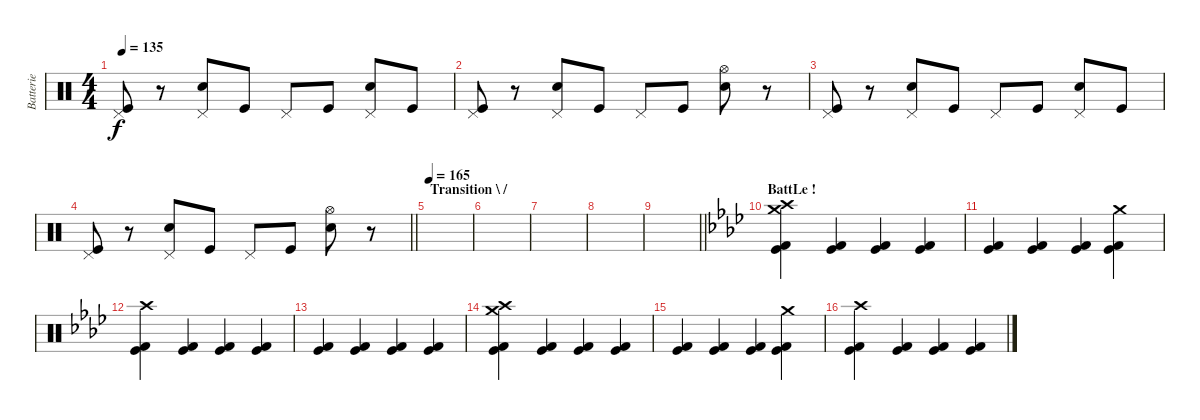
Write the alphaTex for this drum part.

\track ("Batterie" "Batterie") {instrument percussion}
\staff {score}
\articulation defaults
\ts (4 4)
\tempo 135
\clef neutral
\ks c
("Kick (hit)" "Pedal Hi-Hat (hit)").8{dy f} r.8 ("Electric Snare (hit)" "Pedal Hi-Hat (hit)").8 "Kick (hit)".8 "Pedal Hi-Hat (hit)".8 "Kick (hit)".8 ("Electric Snare (hit)" "Pedal Hi-Hat (hit)").8 "Kick (hit)".8 |
("Kick (hit)" "Pedal Hi-Hat (hit)").8 r.8 ("Electric Snare (hit)" "Pedal Hi-Hat (hit)").8 "Kick (hit)".8 "Pedal Hi-Hat (hit)".8 "Kick (hit)".8 ("Electric Snare (hit)" "Hi-Hat (open)").8 r.8 |
("Kick (hit)" "Pedal Hi-Hat (hit)").8 r.8 ("Electric Snare (hit)" "Pedal Hi-Hat (hit)").8 "Kick (hit)".8 "Pedal Hi-Hat (hit)".8 "Kick (hit)".8 ("Electric Snare (hit)" "Pedal Hi-Hat (hit)").8 "Kick (hit)".8 |
\barLineRight lightlight
("Kick (hit)" "Pedal Hi-Hat (hit)").8 r.8 ("Electric Snare (hit)" "Pedal Hi-Hat (hit)").8 "Kick (hit)".8 "Pedal Hi-Hat (hit)".8 "Kick (hit)".8 ("Electric Snare (hit)" "Hi-Hat (open)").8 r.8 |
\section ("" "Transition \\ /")
\tempo 165
|
|
|
|
\barLineRight lightlight
|
\section ("" "BattLe !")
\ks ab
("Kick (hit)" "Kick (hit) 2" "Crash high (hit)" "Crash medium (hit)").4 ("Kick (hit)" "Kick (hit) 2").4 ("Kick (hit)" "Kick (hit) 2").4 ("Kick (hit)" "Kick (hit) 2").4 |
("Kick (hit)" "Kick (hit) 2").4 ("Kick (hit)" "Kick (hit) 2").4 ("Kick (hit)" "Kick (hit) 2").4 ("Kick (hit)" "Kick (hit) 2" "Crash medium (hit)").4 |
("Kick (hit)" "Kick (hit) 2" "Crash high (hit)").4 ("Kick (hit)" "Kick (hit) 2").4 ("Kick (hit)" "Kick (hit) 2").4 ("Kick (hit)" "Kick (hit) 2").4 |
("Kick (hit)" "Kick (hit) 2").4 ("Kick (hit)" "Kick (hit) 2").4 ("Kick (hit)" "Kick (hit) 2").4 ("Kick (hit)" "Kick (hit) 2").4 |
("Kick (hit)" "Kick (hit) 2" "Crash high (hit)" "Crash medium (hit)").4 ("Kick (hit)" "Kick (hit) 2").4 ("Kick (hit)" "Kick (hit) 2").4 ("Kick (hit)" "Kick (hit) 2").4 |
("Kick (hit)" "Kick (hit) 2").4 ("Kick (hit)" "Kick (hit) 2").4 ("Kick (hit)" "Kick (hit) 2").4 ("Kick (hit)" "Kick (hit) 2" "Crash medium (hit)").4 |
("Kick (hit)" "Kick (hit) 2" "Crash high (hit)").4 ("Kick (hit)" "Kick (hit) 2").4 ("Kick (hit)" "Kick (hit) 2").4 ("Kick (hit)" "Kick (hit) 2").4
